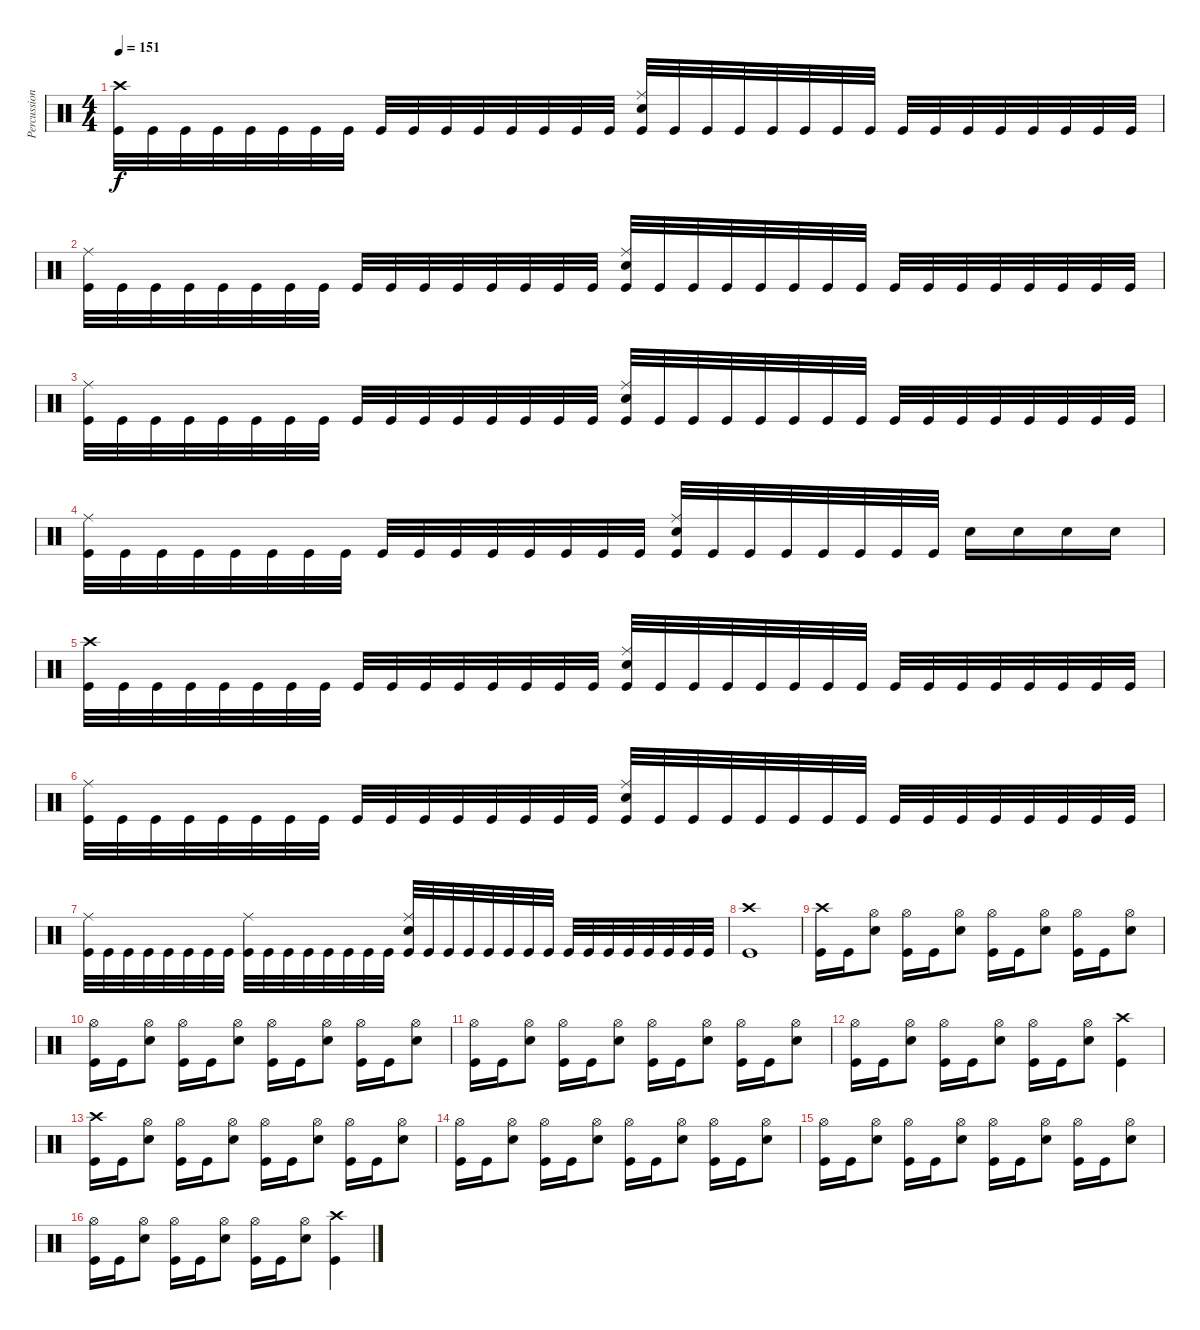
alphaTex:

\track ("Percussion" "Percussion") {instrument percussion}
\staff {score}
\articulation defaults
\ts (4 4)
\tempo 151
\clef neutral
\ks c
("Crash high (hit)" "Kick (hit)").32{dy f} "Kick (hit)".32 "Kick (hit)".32 "Kick (hit)".32 "Kick (hit)".32 "Kick (hit)".32 "Kick (hit)".32 "Kick (hit)".32 "Kick (hit)".32 "Kick (hit)".32 "Kick (hit)".32 "Kick (hit)".32 "Kick (hit)".32 "Kick (hit)".32 "Kick (hit)".32 "Kick (hit)".32 ("Ride (middle)" "Snare (hit) 2" "Kick (hit)").32 "Kick (hit)".32 "Kick (hit)".32 "Kick (hit)".32 "Kick (hit)".32 "Kick (hit)".32 "Kick (hit)".32 "Kick (hit)".32 "Kick (hit)".32 "Kick (hit)".32 "Kick (hit)".32 "Kick (hit)".32 "Kick (hit)".32 "Kick (hit)".32 "Kick (hit)".32 "Kick (hit)".32 |
("Ride (middle)" "Kick (hit)").32 "Kick (hit)".32 "Kick (hit)".32 "Kick (hit)".32 "Kick (hit)".32 "Kick (hit)".32 "Kick (hit)".32 "Kick (hit)".32 "Kick (hit)".32 "Kick (hit)".32 "Kick (hit)".32 "Kick (hit)".32 "Kick (hit)".32 "Kick (hit)".32 "Kick (hit)".32 "Kick (hit)".32 ("Ride (middle)" "Snare (hit) 2" "Kick (hit)").32 "Kick (hit)".32 "Kick (hit)".32 "Kick (hit)".32 "Kick (hit)".32 "Kick (hit)".32 "Kick (hit)".32 "Kick (hit)".32 "Kick (hit)".32 "Kick (hit)".32 "Kick (hit)".32 "Kick (hit)".32 "Kick (hit)".32 "Kick (hit)".32 "Kick (hit)".32 "Kick (hit)".32 |
("Ride (middle)" "Kick (hit)").32 "Kick (hit)".32 "Kick (hit)".32 "Kick (hit)".32 "Kick (hit)".32 "Kick (hit)".32 "Kick (hit)".32 "Kick (hit)".32 "Kick (hit)".32 "Kick (hit)".32 "Kick (hit)".32 "Kick (hit)".32 "Kick (hit)".32 "Kick (hit)".32 "Kick (hit)".32 "Kick (hit)".32 ("Ride (middle)" "Snare (hit) 2" "Kick (hit)").32 "Kick (hit)".32 "Kick (hit)".32 "Kick (hit)".32 "Kick (hit)".32 "Kick (hit)".32 "Kick (hit)".32 "Kick (hit)".32 "Kick (hit)".32 "Kick (hit)".32 "Kick (hit)".32 "Kick (hit)".32 "Kick (hit)".32 "Kick (hit)".32 "Kick (hit)".32 "Kick (hit)".32 |
("Ride (middle)" "Kick (hit)").32 "Kick (hit)".32 "Kick (hit)".32 "Kick (hit)".32 "Kick (hit)".32 "Kick (hit)".32 "Kick (hit)".32 "Kick (hit)".32 "Kick (hit)".32 "Kick (hit)".32 "Kick (hit)".32 "Kick (hit)".32 "Kick (hit)".32 "Kick (hit)".32 "Kick (hit)".32 "Kick (hit)".32 ("Ride (middle)" "Snare (hit) 2" "Kick (hit)").32 "Kick (hit)".32 "Kick (hit)".32 "Kick (hit)".32 "Kick (hit)".32 "Kick (hit)".32 "Kick (hit)".32 "Kick (hit)".32 "Snare (hit) 2".16 "Snare (hit) 2".16 "Snare (hit) 2".16 "Snare (hit) 2".16 |
("Crash high (hit)" "Kick (hit)").32 "Kick (hit)".32 "Kick (hit)".32 "Kick (hit)".32 "Kick (hit)".32 "Kick (hit)".32 "Kick (hit)".32 "Kick (hit)".32 "Kick (hit)".32 "Kick (hit)".32 "Kick (hit)".32 "Kick (hit)".32 "Kick (hit)".32 "Kick (hit)".32 "Kick (hit)".32 "Kick (hit)".32 ("Ride (middle)" "Snare (hit) 2" "Kick (hit)").32 "Kick (hit)".32 "Kick (hit)".32 "Kick (hit)".32 "Kick (hit)".32 "Kick (hit)".32 "Kick (hit)".32 "Kick (hit)".32 "Kick (hit)".32 "Kick (hit)".32 "Kick (hit)".32 "Kick (hit)".32 "Kick (hit)".32 "Kick (hit)".32 "Kick (hit)".32 "Kick (hit)".32 |
("Ride (middle)" "Kick (hit)").32 "Kick (hit)".32 "Kick (hit)".32 "Kick (hit)".32 "Kick (hit)".32 "Kick (hit)".32 "Kick (hit)".32 "Kick (hit)".32 "Kick (hit)".32 "Kick (hit)".32 "Kick (hit)".32 "Kick (hit)".32 "Kick (hit)".32 "Kick (hit)".32 "Kick (hit)".32 "Kick (hit)".32 ("Ride (middle)" "Snare (hit) 2" "Kick (hit)").32 "Kick (hit)".32 "Kick (hit)".32 "Kick (hit)".32 "Kick (hit)".32 "Kick (hit)".32 "Kick (hit)".32 "Kick (hit)".32 "Kick (hit)".32 "Kick (hit)".32 "Kick (hit)".32 "Kick (hit)".32 "Kick (hit)".32 "Kick (hit)".32 "Kick (hit)".32 "Kick (hit)".32 |
("Ride (middle)" "Kick (hit)").32 "Kick (hit)".32 "Kick (hit)".32 "Kick (hit)".32 "Kick (hit)".32 "Kick (hit)".32 "Kick (hit)".32 "Kick (hit)".32 ("Ride (middle)" "Kick (hit)").32 "Kick (hit)".32 "Kick (hit)".32 "Kick (hit)".32 "Kick (hit)".32 "Kick (hit)".32 "Kick (hit)".32 "Kick (hit)".32 ("Ride (middle)" "Snare (hit) 2" "Kick (hit)").32 "Kick (hit)".32 "Kick (hit)".32 "Kick (hit)".32 "Kick (hit)".32 "Kick (hit)".32 "Kick (hit)".32 "Kick (hit)".32 "Kick (hit)".32 "Kick (hit)".32 "Kick (hit)".32 "Kick (hit)".32 "Kick (hit)".32 "Kick (hit)".32 "Kick (hit)".32 "Kick (hit)".32 |
("Crash high (hit)" "Kick (hit)").1 |
("Crash high (hit)" "Kick (hit)").16 "Kick (hit)".16 ("Hi-Hat (open)" "Snare (hit) 2").8 ("Hi-Hat (open)" "Kick (hit)").16 "Kick (hit)".16 ("Hi-Hat (open)" "Snare (hit) 2").8 ("Hi-Hat (open)" "Kick (hit)").16 "Kick (hit)".16 ("Hi-Hat (open)" "Snare (hit) 2").8 ("Hi-Hat (open)" "Kick (hit)").16 "Kick (hit)".16 ("Hi-Hat (open)" "Snare (hit) 2").8 |
("Hi-Hat (open)" "Kick (hit)").16 "Kick (hit)".16 ("Hi-Hat (open)" "Snare (hit) 2").8 ("Hi-Hat (open)" "Kick (hit)").16 "Kick (hit)".16 ("Hi-Hat (open)" "Snare (hit) 2").8 ("Hi-Hat (open)" "Kick (hit)").16 "Kick (hit)".16 ("Hi-Hat (open)" "Snare (hit) 2").8 ("Hi-Hat (open)" "Kick (hit)").16 "Kick (hit)".16 ("Hi-Hat (open)" "Snare (hit) 2").8 |
("Hi-Hat (open)" "Kick (hit)").16 "Kick (hit)".16 ("Hi-Hat (open)" "Snare (hit) 2").8 ("Hi-Hat (open)" "Kick (hit)").16 "Kick (hit)".16 ("Hi-Hat (open)" "Snare (hit) 2").8 ("Hi-Hat (open)" "Kick (hit)").16 "Kick (hit)".16 ("Hi-Hat (open)" "Snare (hit) 2").8 ("Hi-Hat (open)" "Kick (hit)").16 "Kick (hit)".16 ("Hi-Hat (open)" "Snare (hit) 2").8 |
("Hi-Hat (open)" "Kick (hit)").16 "Kick (hit)".16 ("Hi-Hat (open)" "Snare (hit) 2").8 ("Hi-Hat (open)" "Kick (hit)").16 "Kick (hit)".16 ("Hi-Hat (open)" "Snare (hit) 2").8 ("Hi-Hat (open)" "Kick (hit)").16 "Kick (hit)".16 ("Hi-Hat (open)" "Snare (hit) 2").8 ("Crash high (hit)" "Kick (hit)").4 |
("Crash high (hit)" "Kick (hit)").16 "Kick (hit)".16 ("Hi-Hat (open)" "Snare (hit) 2").8 ("Hi-Hat (open)" "Kick (hit)").16 "Kick (hit)".16 ("Hi-Hat (open)" "Snare (hit) 2").8 ("Hi-Hat (open)" "Kick (hit)").16 "Kick (hit)".16 ("Hi-Hat (open)" "Snare (hit) 2").8 ("Hi-Hat (open)" "Kick (hit)").16 "Kick (hit)".16 ("Hi-Hat (open)" "Snare (hit) 2").8 |
("Hi-Hat (open)" "Kick (hit)").16 "Kick (hit)".16 ("Hi-Hat (open)" "Snare (hit) 2").8 ("Hi-Hat (open)" "Kick (hit)").16 "Kick (hit)".16 ("Hi-Hat (open)" "Snare (hit) 2").8 ("Hi-Hat (open)" "Kick (hit)").16 "Kick (hit)".16 ("Hi-Hat (open)" "Snare (hit) 2").8 ("Hi-Hat (open)" "Kick (hit)").16 "Kick (hit)".16 ("Hi-Hat (open)" "Snare (hit) 2").8 |
("Hi-Hat (open)" "Kick (hit)").16 "Kick (hit)".16 ("Hi-Hat (open)" "Snare (hit) 2").8 ("Hi-Hat (open)" "Kick (hit)").16 "Kick (hit)".16 ("Hi-Hat (open)" "Snare (hit) 2").8 ("Hi-Hat (open)" "Kick (hit)").16 "Kick (hit)".16 ("Hi-Hat (open)" "Snare (hit) 2").8 ("Hi-Hat (open)" "Kick (hit)").16 "Kick (hit)".16 ("Hi-Hat (open)" "Snare (hit) 2").8 |
("Hi-Hat (open)" "Kick (hit)").16 "Kick (hit)".16 ("Hi-Hat (open)" "Snare (hit) 2").8 ("Hi-Hat (open)" "Kick (hit)").16 "Kick (hit)".16 ("Hi-Hat (open)" "Snare (hit) 2").8 ("Hi-Hat (open)" "Kick (hit)").16 "Kick (hit)".16 ("Hi-Hat (open)" "Snare (hit) 2").8 ("Crash high (hit)" "Kick (hit)").4
